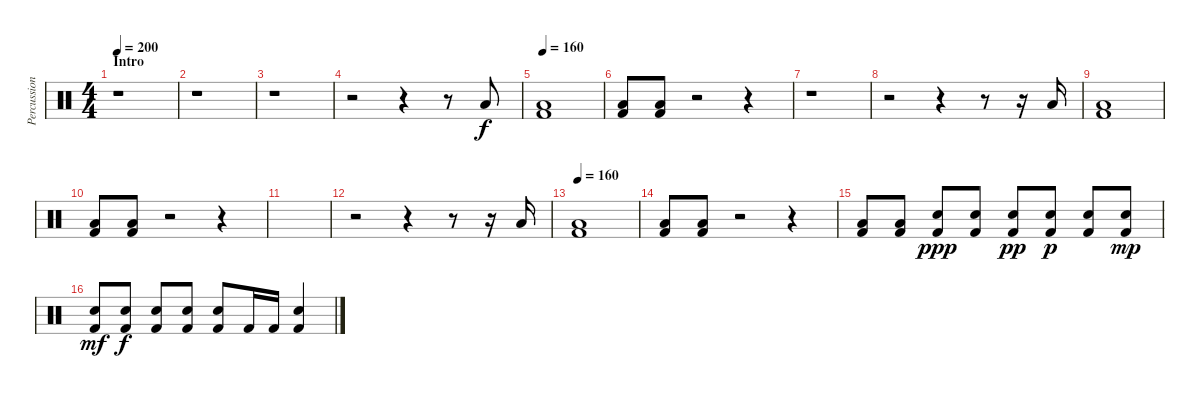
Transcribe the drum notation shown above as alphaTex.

\track ("Percussion" "Percussion") {instrument percussion}
\staff {score}
\articulation defaults
\ts (4 4)
\section ("" "Intro")
\tempo 200
\tempo 160
\tempo 200
\clef neutral
\ks c
r.1{dy f} |
r.1 |
r.1 |
r.2 r.4 r.8 "Low Floor Tom (hit)".8 |
\tempo 160
("Low Floor Tom (hit)" "Kick (hit) 2").1 |
("Low Floor Tom (hit)" "Kick (hit) 2").8 ("Low Floor Tom (hit)" "Kick (hit) 2").8 r.2 r.4 |
r.1 |
r.2 r.4 r.8 r.16 "Low Floor Tom (hit)".16 |
("Low Floor Tom (hit)" "Kick (hit) 2").1 |
("Low Floor Tom (hit)" "Kick (hit) 2").8 ("Low Floor Tom (hit)" "Kick (hit) 2").8 r.2 r.4 |
|
r.2 r.4 r.8 r.16 "Low Floor Tom (hit)".16 |
\tempo 160
("Low Floor Tom (hit)" "Kick (hit) 2").1 |
("Low Floor Tom (hit)" "Kick (hit) 2").8 ("Low Floor Tom (hit)" "Kick (hit) 2").8 r.2 r.4 |
("Low Floor Tom (hit)" "Kick (hit) 2").8 ("Low Floor Tom (hit)" "Kick (hit) 2").8 ("Snare (hit) 2" "Kick (hit) 2").8{dy ppp} ("Snare (hit) 2" "Kick (hit) 2").8 ("Snare (hit) 2" "Kick (hit) 2").8{dy pp} ("Snare (hit) 2" "Kick (hit) 2").8{dy p} ("Snare (hit) 2" "Kick (hit) 2").8 ("Snare (hit) 2" "Kick (hit) 2").8{dy mp} |
("Snare (hit) 2" "Kick (hit) 2").8{dy mf} ("Snare (hit) 2" "Kick (hit) 2").8{dy f} ("Snare (hit) 2" "Kick (hit) 2").8 ("Snare (hit) 2" "Kick (hit) 2").8 ("Snare (hit) 2" "Kick (hit) 2").8 "Kick (hit) 2".16 "Kick (hit) 2".16 ("Snare (hit) 2" "Kick (hit) 2").4
